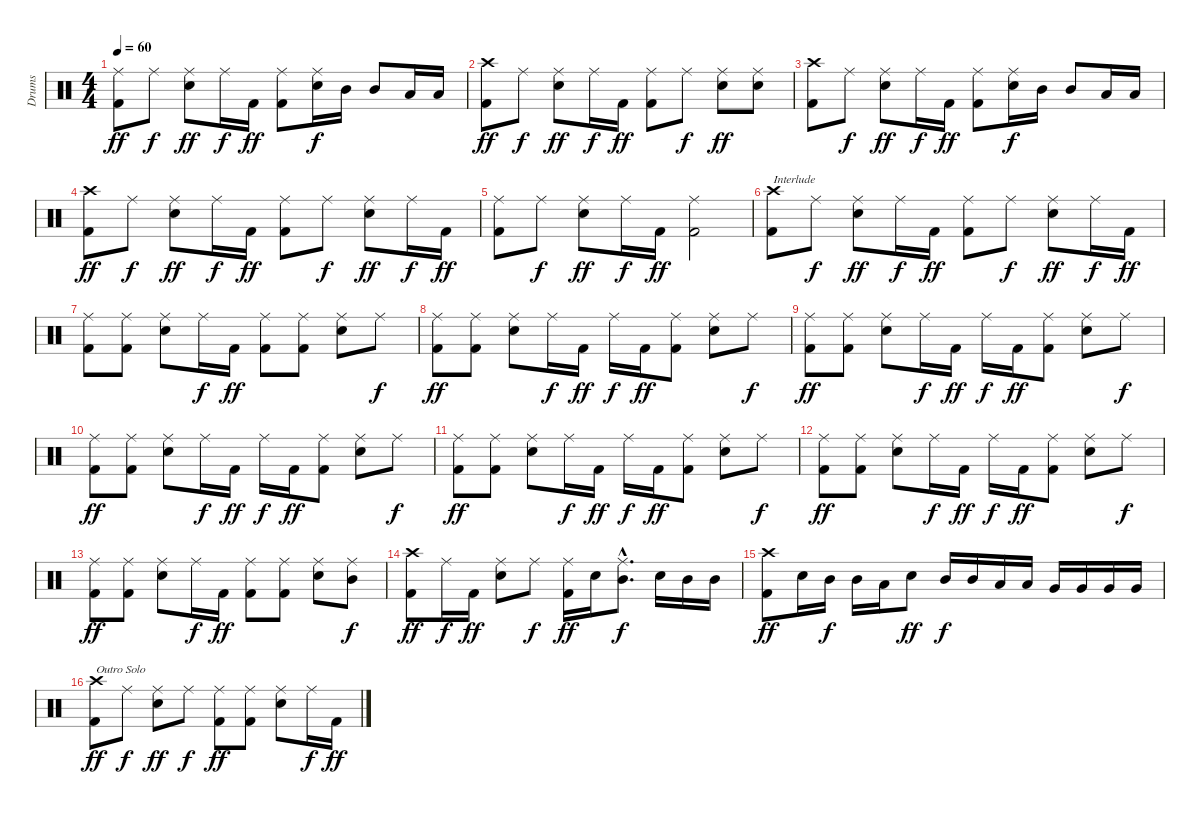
\track ("Drums" "Drums") {instrument percussion}
\staff {score}
\articulation defaults
\ts (4 4)
\tempo 60
\clef neutral
\ks c
("Ride (middle)" "Kick (hit) 2").8{dy ff} "Ride (middle)".8{dy f} ("Ride (middle)" "Snare (hit) 2").8{dy ff} "Ride (middle)".16{dy f} "Kick (hit) 2".16{dy ff} ("Ride (middle)" "Kick (hit) 2").8 ("Ride (middle)" "Snare (hit) 2").16{dy f} "Mid Tom (hit)".16 "Mid Tom (hit)".8 "Low Tom (hit)".16 "Low Tom (hit)".16 |
("Crash high (hit)" "Kick (hit) 2").8{dy ff} "Ride (middle)".8{dy f} ("Ride (middle)" "Snare (hit) 2").8{dy ff} "Ride (middle)".16{dy f} "Kick (hit) 2".16{dy ff} ("Ride (middle)" "Kick (hit) 2").8 "Ride (middle)".8{dy f} ("Ride (middle)" "Snare (hit) 2").8{dy ff} ("Ride (middle)" "Snare (hit) 2").8 |
("Crash high (hit)" "Kick (hit) 2").8 "Ride (middle)".8{dy f} ("Ride (middle)" "Snare (hit) 2").8{dy ff} "Ride (middle)".16{dy f} "Kick (hit) 2".16{dy ff} ("Ride (middle)" "Kick (hit) 2").8 ("Ride (middle)" "Snare (hit) 2").16{dy f} "Mid Tom (hit)".16 "Mid Tom (hit)".8 "Low Tom (hit)".16 "Low Tom (hit)".16 |
("Crash high (hit)" "Kick (hit) 2").8{dy ff} "Ride (middle)".8{dy f} ("Ride (middle)" "Snare (hit) 2").8{dy ff} "Ride (middle)".16{dy f} "Kick (hit) 2".16{dy ff} ("Ride (middle)" "Kick (hit) 2").8 "Ride (middle)".8{dy f} ("Ride (middle)" "Snare (hit) 2").8{dy ff} "Ride (middle)".16{dy f} "Kick (hit) 2".16{dy ff} |
("Ride (middle)" "Kick (hit) 2").8 "Ride (middle)".8{dy f} ("Ride (middle)" "Snare (hit) 2").8{dy ff} "Ride (middle)".16{dy f} "Kick (hit) 2".16{dy ff} ("Ride (middle)" "Kick (hit) 2").2 |
("Crash high (hit)" "Kick (hit) 2").8{txt "Interlude"} "Ride (middle)".8{dy f} ("Ride (middle)" "Snare (hit) 2").8{dy ff} "Ride (middle)".16{dy f} "Kick (hit) 2".16{dy ff} ("Ride (middle)" "Kick (hit) 2").8 "Ride (middle)".8{dy f} ("Ride (middle)" "Snare (hit) 2").8{dy ff} "Ride (middle)".16{dy f} "Kick (hit) 2".16{dy ff} |
("Ride (middle)" "Kick (hit) 2").8 ("Ride (middle)" "Kick (hit) 2").8 ("Ride (middle)" "Snare (hit) 2").8 "Ride (middle)".16{dy f} "Kick (hit) 2".16{dy ff} ("Ride (middle)" "Kick (hit) 2").8 ("Ride (middle)" "Kick (hit) 2").8 ("Ride (middle)" "Snare (hit) 2").8 "Ride (middle)".8{dy f} |
("Ride (middle)" "Kick (hit) 2").8{dy ff} ("Ride (middle)" "Kick (hit) 2").8 ("Ride (middle)" "Snare (hit) 2").8 "Ride (middle)".16{dy f} "Kick (hit) 2".16{dy ff} "Ride (middle)".16{dy f} "Kick (hit) 2".16{dy ff} ("Ride (middle)" "Kick (hit) 2").8 ("Ride (middle)" "Snare (hit) 2").8 "Ride (middle)".8{dy f} |
("Ride (middle)" "Kick (hit) 2").8{dy ff} ("Ride (middle)" "Kick (hit) 2").8 ("Ride (middle)" "Snare (hit) 2").8 "Ride (middle)".16{dy f} "Kick (hit) 2".16{dy ff} "Ride (middle)".16{dy f} "Kick (hit) 2".16{dy ff} ("Ride (middle)" "Kick (hit) 2").8 ("Ride (middle)" "Snare (hit) 2").8 "Ride (middle)".8{dy f} |
("Ride (middle)" "Kick (hit) 2").8{dy ff} ("Ride (middle)" "Kick (hit) 2").8 ("Ride (middle)" "Snare (hit) 2").8 "Ride (middle)".16{dy f} "Kick (hit) 2".16{dy ff} "Ride (middle)".16{dy f} "Kick (hit) 2".16{dy ff} ("Ride (middle)" "Kick (hit) 2").8 ("Ride (middle)" "Snare (hit) 2").8 "Ride (middle)".8{dy f} |
("Ride (middle)" "Kick (hit) 2").8{dy ff} ("Ride (middle)" "Kick (hit) 2").8 ("Ride (middle)" "Snare (hit) 2").8 "Ride (middle)".16{dy f} "Kick (hit) 2".16{dy ff} "Ride (middle)".16{dy f} "Kick (hit) 2".16{dy ff} ("Ride (middle)" "Kick (hit) 2").8 ("Ride (middle)" "Snare (hit) 2").8 "Ride (middle)".8{dy f} |
("Ride (middle)" "Kick (hit) 2").8{dy ff} ("Ride (middle)" "Kick (hit) 2").8 ("Ride (middle)" "Snare (hit) 2").8 "Ride (middle)".16{dy f} "Kick (hit) 2".16{dy ff} "Ride (middle)".16{dy f} "Kick (hit) 2".16{dy ff} ("Ride (middle)" "Kick (hit) 2").8 ("Ride (middle)" "Snare (hit) 2").8 "Ride (middle)".8{dy f} |
("Ride (middle)" "Kick (hit) 2").8{dy ff} ("Ride (middle)" "Kick (hit) 2").8 ("Ride (middle)" "Snare (hit) 2").8 "Ride (middle)".16{dy f} "Kick (hit) 2".16{dy ff} ("Ride (middle)" "Kick (hit) 2").8 ("Ride (middle)" "Kick (hit) 2").8 ("Ride (middle)" "Snare (hit) 2").8 ("Ride (middle)" "Mid Tom (hit)").8{dy f} |
("Crash high (hit)" "Kick (hit) 2").8{dy ff} "Ride (middle)".16{dy f} "Kick (hit) 2".16{dy ff} ("Ride (middle)" "Snare (hit) 2").8 "Ride (middle)".8{dy f} ("Ride (middle)" "Kick (hit) 2").16{dy ff} "Snare (hit) 2".16 ("Ride (middle)"{hac} "Mid Tom (hit)"{hac}).8{d dy f} "Snare (hit) 2".16 "Mid Tom (hit)".16 "Mid Tom (hit)".16 |
("Crash high (hit)" "Kick (hit) 2").8{dy ff} "Snare (hit) 2".16 "Mid Tom (hit)".16{dy f} "Mid Tom (hit)".16 "Low Tom (hit)".16 "Snare (hit) 2".8{dy ff} "Mid Tom (hit)".16{dy f} "Mid Tom (hit)".16 "Low Tom (hit)".16 "Low Tom (hit)".16 "Very Low Tom (hit)".16 "Very Low Tom (hit)".16 "Very Low Tom (hit)".16 "Very Low Tom (hit)".16 |
("Crash high (hit)" "Kick (hit) 2").8{txt "Outro Solo" dy ff} "Ride (middle)".8{dy f} ("Ride (middle)" "Snare (hit) 2").8{dy ff} "Ride (middle)".8{dy f} ("Ride (middle)" "Kick (hit) 2").8{dy ff} ("Ride (middle)" "Kick (hit) 2").8 ("Ride (middle)" "Snare (hit) 2").8 "Ride (middle)".16{dy f} "Kick (hit) 2".16{dy ff}
